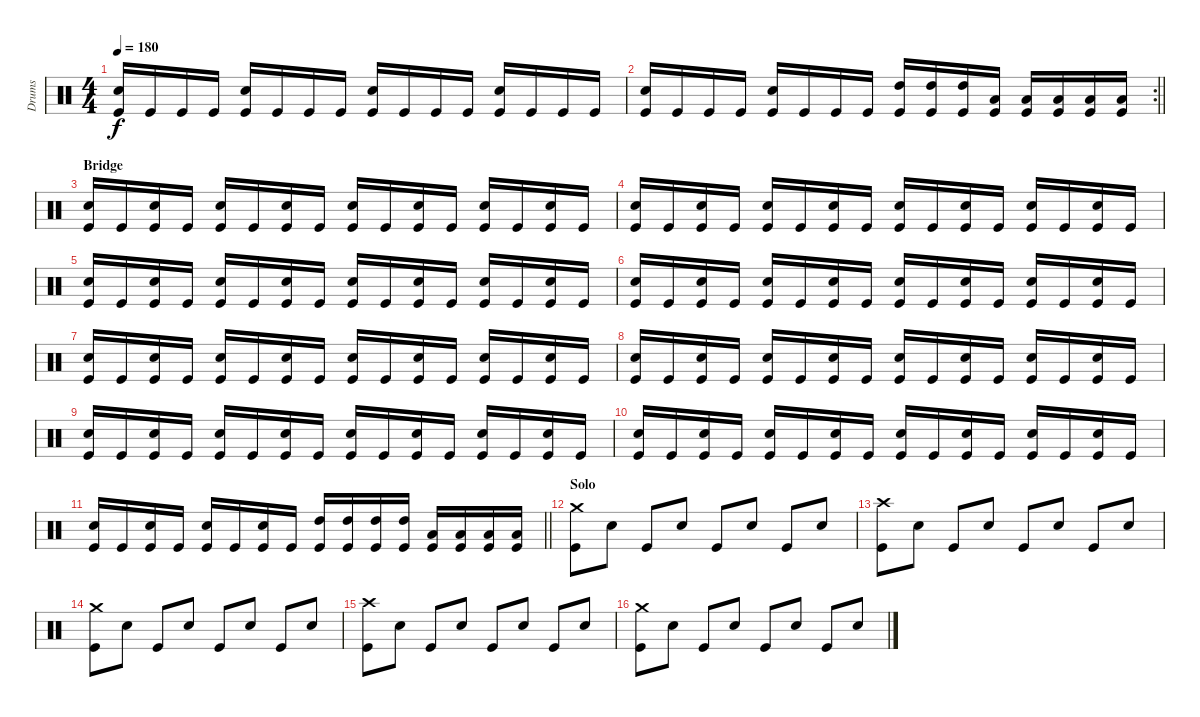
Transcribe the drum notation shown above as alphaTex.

\track ("Drums" "Drums") {instrument percussion}
\staff {score}
\articulation defaults
\ts (4 4)
\tempo 180
\clef neutral
\ks c
("Electric Snare (hit)" "Kick (hit)").16{dy f} "Kick (hit)".16 "Kick (hit)".16 "Kick (hit)".16 ("Electric Snare (hit)" "Kick (hit)").16 "Kick (hit)".16 "Kick (hit)".16 "Kick (hit)".16 ("Electric Snare (hit)" "Kick (hit)").16 "Kick (hit)".16 "Kick (hit)".16 "Kick (hit)".16 ("Electric Snare (hit)" "Kick (hit)").16 "Kick (hit)".16 "Kick (hit)".16 "Kick (hit)".16 |
\rc 2
\barLineRight lightlight
("Electric Snare (hit)" "Kick (hit)").16 "Kick (hit)".16 "Kick (hit)".16 "Kick (hit)".16 ("Electric Snare (hit)" "Kick (hit)").16 "Kick (hit)".16 "Kick (hit)".16 "Kick (hit)".16 ("High Tom (hit)" "Kick (hit)").16 ("High Tom (hit)" "Kick (hit)").16 ("High Tom (hit)" "Kick (hit)").16 ("Low Tom (hit)" "Kick (hit)").16 ("Low Tom (hit)" "Kick (hit)").16 ("Low Tom (hit)" "Kick (hit)").16 ("Low Floor Tom (hit)" "Kick (hit)").16 ("Low Floor Tom (hit)" "Kick (hit)").16 |
\section ("" "Bridge")
("Electric Snare (hit)" "Kick (hit)").16 "Kick (hit)".16 ("Electric Snare (hit)" "Kick (hit)").16 "Kick (hit)".16 ("Electric Snare (hit)" "Kick (hit)").16 "Kick (hit)".16 ("Electric Snare (hit)" "Kick (hit)").16 "Kick (hit)".16 ("Electric Snare (hit)" "Kick (hit)").16 "Kick (hit)".16 ("Electric Snare (hit)" "Kick (hit)").16 "Kick (hit)".16 ("Electric Snare (hit)" "Kick (hit)").16 "Kick (hit)".16 ("Electric Snare (hit)" "Kick (hit)").16 "Kick (hit)".16 |
("Electric Snare (hit)" "Kick (hit)").16 "Kick (hit)".16 ("Electric Snare (hit)" "Kick (hit)").16 "Kick (hit)".16 ("Electric Snare (hit)" "Kick (hit)").16 "Kick (hit)".16 ("Electric Snare (hit)" "Kick (hit)").16 "Kick (hit)".16 ("Electric Snare (hit)" "Kick (hit)").16 "Kick (hit)".16 ("Electric Snare (hit)" "Kick (hit)").16 "Kick (hit)".16 ("Electric Snare (hit)" "Kick (hit)").16 "Kick (hit)".16 ("Electric Snare (hit)" "Kick (hit)").16 "Kick (hit)".16 |
("Electric Snare (hit)" "Kick (hit)").16 "Kick (hit)".16 ("Electric Snare (hit)" "Kick (hit)").16 "Kick (hit)".16 ("Electric Snare (hit)" "Kick (hit)").16 "Kick (hit)".16 ("Electric Snare (hit)" "Kick (hit)").16 "Kick (hit)".16 ("Electric Snare (hit)" "Kick (hit)").16 "Kick (hit)".16 ("Electric Snare (hit)" "Kick (hit)").16 "Kick (hit)".16 ("Electric Snare (hit)" "Kick (hit)").16 "Kick (hit)".16 ("Electric Snare (hit)" "Kick (hit)").16 "Kick (hit)".16 |
("Electric Snare (hit)" "Kick (hit)").16 "Kick (hit)".16 ("Electric Snare (hit)" "Kick (hit)").16 "Kick (hit)".16 ("Electric Snare (hit)" "Kick (hit)").16 "Kick (hit)".16 ("Electric Snare (hit)" "Kick (hit)").16 "Kick (hit)".16 ("Electric Snare (hit)" "Kick (hit)").16 "Kick (hit)".16 ("Electric Snare (hit)" "Kick (hit)").16 "Kick (hit)".16 ("Electric Snare (hit)" "Kick (hit)").16 "Kick (hit)".16 ("Electric Snare (hit)" "Kick (hit)").16 "Kick (hit)".16 |
("Electric Snare (hit)" "Kick (hit)").16 "Kick (hit)".16 ("Electric Snare (hit)" "Kick (hit)").16 "Kick (hit)".16 ("Electric Snare (hit)" "Kick (hit)").16 "Kick (hit)".16 ("Electric Snare (hit)" "Kick (hit)").16 "Kick (hit)".16 ("Electric Snare (hit)" "Kick (hit)").16 "Kick (hit)".16 ("Electric Snare (hit)" "Kick (hit)").16 "Kick (hit)".16 ("Electric Snare (hit)" "Kick (hit)").16 "Kick (hit)".16 ("Electric Snare (hit)" "Kick (hit)").16 "Kick (hit)".16 |
("Electric Snare (hit)" "Kick (hit)").16 "Kick (hit)".16 ("Electric Snare (hit)" "Kick (hit)").16 "Kick (hit)".16 ("Electric Snare (hit)" "Kick (hit)").16 "Kick (hit)".16 ("Electric Snare (hit)" "Kick (hit)").16 "Kick (hit)".16 ("Electric Snare (hit)" "Kick (hit)").16 "Kick (hit)".16 ("Electric Snare (hit)" "Kick (hit)").16 "Kick (hit)".16 ("Electric Snare (hit)" "Kick (hit)").16 "Kick (hit)".16 ("Electric Snare (hit)" "Kick (hit)").16 "Kick (hit)".16 |
("Electric Snare (hit)" "Kick (hit)").16 "Kick (hit)".16 ("Electric Snare (hit)" "Kick (hit)").16 "Kick (hit)".16 ("Electric Snare (hit)" "Kick (hit)").16 "Kick (hit)".16 ("Electric Snare (hit)" "Kick (hit)").16 "Kick (hit)".16 ("Electric Snare (hit)" "Kick (hit)").16 "Kick (hit)".16 ("Electric Snare (hit)" "Kick (hit)").16 "Kick (hit)".16 ("Electric Snare (hit)" "Kick (hit)").16 "Kick (hit)".16 ("Electric Snare (hit)" "Kick (hit)").16 "Kick (hit)".16 |
("Electric Snare (hit)" "Kick (hit)").16 "Kick (hit)".16 ("Electric Snare (hit)" "Kick (hit)").16 "Kick (hit)".16 ("Electric Snare (hit)" "Kick (hit)").16 "Kick (hit)".16 ("Electric Snare (hit)" "Kick (hit)").16 "Kick (hit)".16 ("Electric Snare (hit)" "Kick (hit)").16 "Kick (hit)".16 ("Electric Snare (hit)" "Kick (hit)").16 "Kick (hit)".16 ("Electric Snare (hit)" "Kick (hit)").16 "Kick (hit)".16 ("Electric Snare (hit)" "Kick (hit)").16 "Kick (hit)".16 |
\barLineRight lightlight
("Electric Snare (hit)" "Kick (hit)").16 "Kick (hit)".16 ("Electric Snare (hit)" "Kick (hit)").16 "Kick (hit)".16 ("Electric Snare (hit)" "Kick (hit)").16 "Kick (hit)".16 ("Electric Snare (hit)" "Kick (hit)").16 "Kick (hit)".16 ("High Tom (hit)" "Kick (hit)").16 ("High Tom (hit)" "Kick (hit)").16 ("High Tom (hit)" "Kick (hit)").16 ("High Tom (hit)" "Kick (hit)").16 ("Low Tom (hit)" "Kick (hit)").16 ("Low Tom (hit)" "Kick (hit)").16 ("Low Tom (hit)" "Kick (hit)").16 ("Low Tom (hit)" "Kick (hit)").16 |
\section ("" "Solo")
("Crash medium (hit)" "Kick (hit)").8 "Electric Snare (hit)".8 "Kick (hit)".8 "Electric Snare (hit)".8 "Kick (hit)".8 "Electric Snare (hit)".8 "Kick (hit)".8 "Electric Snare (hit)".8 |
("Crash high (hit)" "Kick (hit)").8 "Electric Snare (hit)".8 "Kick (hit)".8 "Electric Snare (hit)".8 "Kick (hit)".8 "Electric Snare (hit)".8 "Kick (hit)".8 "Electric Snare (hit)".8 |
("Crash medium (hit)" "Kick (hit)").8 "Electric Snare (hit)".8 "Kick (hit)".8 "Electric Snare (hit)".8 "Kick (hit)".8 "Electric Snare (hit)".8 "Kick (hit)".8 "Electric Snare (hit)".8 |
("Crash high (hit)" "Kick (hit)").8 "Electric Snare (hit)".8 "Kick (hit)".8 "Electric Snare (hit)".8 "Kick (hit)".8 "Electric Snare (hit)".8 "Kick (hit)".8 "Electric Snare (hit)".8 |
("Crash medium (hit)" "Kick (hit)").8 "Electric Snare (hit)".8 "Kick (hit)".8 "Electric Snare (hit)".8 "Kick (hit)".8 "Electric Snare (hit)".8 "Kick (hit)".8 "Electric Snare (hit)".8
